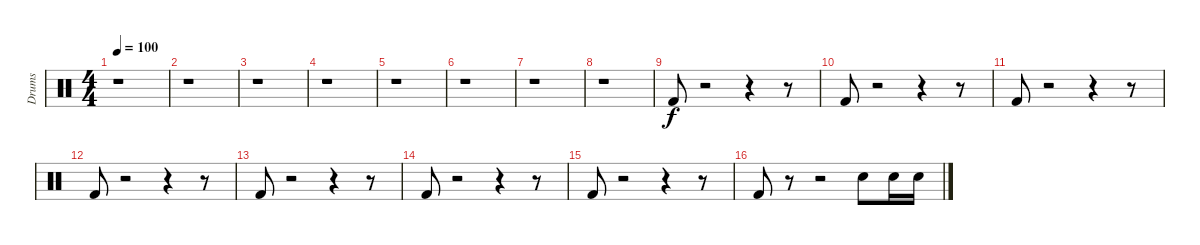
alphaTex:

\track ("Drums" "Drums") {instrument percussion}
\staff {score}
\articulation defaults
\ts (4 4)
\tempo 100
\clef neutral
\ks c
r.1{dy f} |
r.1 |
r.1 |
r.1 |
r.1 |
r.1 |
r.1 |
r.1 |
"Kick (hit) 2".8 r.2 r.4 r.8 |
"Kick (hit) 2".8 r.2 r.4 r.8 |
"Kick (hit) 2".8 r.2 r.4 r.8 |
"Kick (hit) 2".8 r.2 r.4 r.8 |
"Kick (hit) 2".8 r.2 r.4 r.8 |
"Kick (hit) 2".8 r.2 r.4 r.8 |
"Kick (hit) 2".8 r.2 r.4 r.8 |
"Kick (hit) 2".8 r.8 r.2 "Electric Snare (hit)".8 "Electric Snare (hit)".16 "Electric Snare (hit)".16
